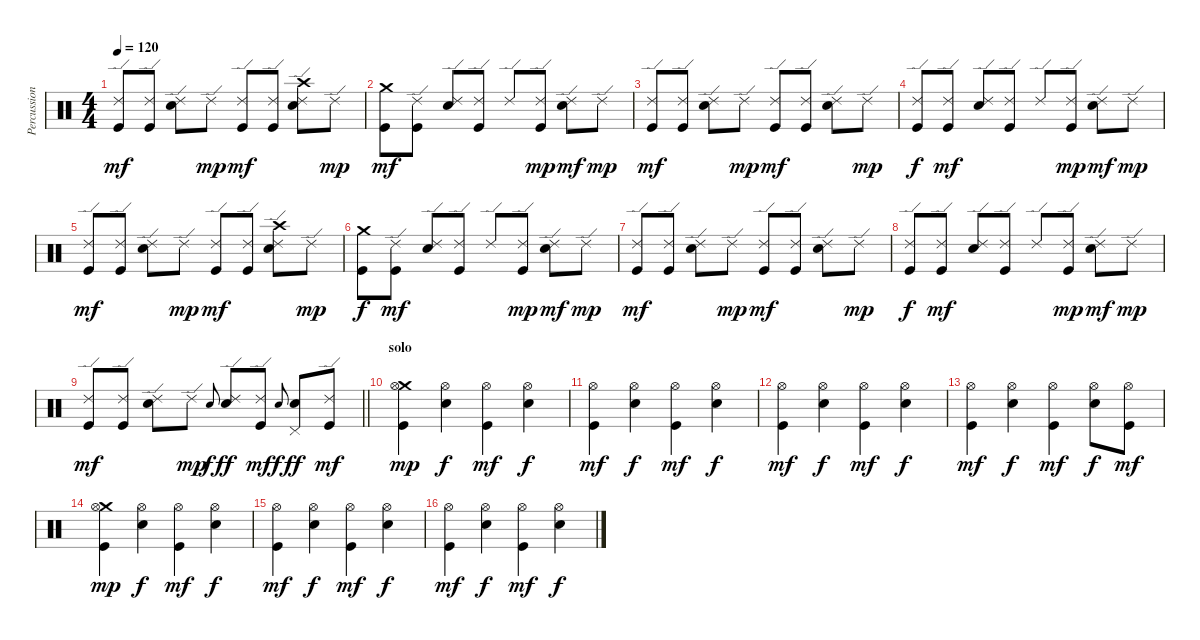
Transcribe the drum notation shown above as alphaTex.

\track ("Percussion" "Percussion") {instrument percussion}
\staff {score}
\articulation defaults
\ts (4 4)
\tempo 120
\clef neutral
\ks c
("Ride (edge) 2" "Kick (hit)").8{dy mf} ("Ride (edge) 2" "Kick (hit)").8 ("Ride (edge) 2" "Electric Snare (hit)").8 "Ride (edge) 2".8{dy mp} ("Ride (edge) 2" "Kick (hit)").8{dy mf} ("Ride (edge) 2" "Kick (hit)").8 ("Ride (edge) 2" "Crash high (hit)" "Electric Snare (hit)").8 "Ride (edge) 2".8{dy mp} |
("Crash medium (hit)" "Kick (hit)").8{dy mf} ("Ride (edge) 2" "Kick (hit)").8 ("Ride (edge) 2" "Electric Snare (hit)").8 ("Ride (edge) 2" "Kick (hit)").8 "Ride (edge) 2".8 ("Ride (edge) 2" "Kick (hit)").8{dy mp} ("Ride (edge) 2" "Electric Snare (hit)").8{dy mf} "Ride (edge) 2".8{dy mp} |
("Ride (edge) 2" "Kick (hit)").8{dy mf} ("Ride (edge) 2" "Kick (hit)").8 ("Ride (edge) 2" "Electric Snare (hit)").8 "Ride (edge) 2".8{dy mp} ("Ride (edge) 2" "Kick (hit)").8{dy mf} ("Ride (edge) 2" "Kick (hit)").8 ("Ride (edge) 2" "Electric Snare (hit)").8 "Ride (edge) 2".8{dy mp} |
("Ride (edge) 2" "Kick (hit)").8{dy f} ("Ride (edge) 2" "Kick (hit)").8{dy mf} ("Ride (edge) 2" "Electric Snare (hit)").8 ("Ride (edge) 2" "Kick (hit)").8 "Ride (edge) 2".8 ("Ride (edge) 2" "Kick (hit)").8{dy mp} ("Ride (edge) 2" "Electric Snare (hit)").8{dy mf} "Ride (edge) 2".8{dy mp} |
("Ride (edge) 2" "Kick (hit)").8{dy mf} ("Ride (edge) 2" "Kick (hit)").8 ("Ride (edge) 2" "Electric Snare (hit)").8 "Ride (edge) 2".8{dy mp} ("Ride (edge) 2" "Kick (hit)").8{dy mf} ("Ride (edge) 2" "Kick (hit)").8 ("Ride (edge) 2" "Crash high (hit)" "Electric Snare (hit)").8 "Ride (edge) 2".8{dy mp} |
("Crash medium (hit)" "Kick (hit)").8{dy f} ("Ride (edge) 2" "Kick (hit)").8{dy mf} ("Ride (edge) 2" "Electric Snare (hit)").8 ("Ride (edge) 2" "Kick (hit)").8 "Ride (edge) 2".8 ("Ride (edge) 2" "Kick (hit)").8{dy mp} ("Ride (edge) 2" "Electric Snare (hit)").8{dy mf} "Ride (edge) 2".8{dy mp} |
("Ride (edge) 2" "Kick (hit)").8{dy mf} ("Ride (edge) 2" "Kick (hit)").8 ("Ride (edge) 2" "Electric Snare (hit)").8 "Ride (edge) 2".8{dy mp} ("Ride (edge) 2" "Kick (hit)").8{dy mf} ("Ride (edge) 2" "Kick (hit)").8 ("Ride (edge) 2" "Electric Snare (hit)").8 "Ride (edge) 2".8{dy mp} |
("Ride (edge) 2" "Kick (hit)").8{dy f} ("Ride (edge) 2" "Kick (hit)").8{dy mf} ("Ride (edge) 2" "Electric Snare (hit)").8 ("Ride (edge) 2" "Kick (hit)").8 "Ride (edge) 2".8 ("Ride (edge) 2" "Kick (hit)").8{dy mp} ("Ride (edge) 2" "Electric Snare (hit)").8{dy mf} "Ride (edge) 2".8{dy mp} |
\barLineRight lightlight
("Ride (edge) 2" "Kick (hit)").8{dy mf} ("Ride (edge) 2" "Kick (hit)").8 ("Ride (edge) 2" "Electric Snare (hit)").8 "Ride (edge) 2".8{dy mp} "Electric Snare (hit)".8{gr onbeat dy f} ("Ride (edge) 2" "Electric Snare (hit)").8{dy ff} ("Ride (edge) 2" "Kick (hit)").8{dy mf} "Electric Snare (hit)".8{gr onbeat dy f} ("Pedal Hi-Hat (hit)" "Electric Snare (hit)").8{dy ff} ("Ride (edge) 2" "Kick (hit)").8{dy mf} |
\section ("" "solo")
("Crash medium (hit)" "Hi-Hat (open)" "Kick (hit)").4{dy mp} ("Hi-Hat (open)" "Electric Snare (hit)").4{dy f} ("Hi-Hat (open)" "Kick (hit)").4{dy mf} ("Hi-Hat (open)" "Electric Snare (hit)").4{dy f} |
("Hi-Hat (open)" "Kick (hit)").4{dy mf} ("Hi-Hat (open)" "Electric Snare (hit)").4{dy f} ("Hi-Hat (open)" "Kick (hit)").4{dy mf} ("Hi-Hat (open)" "Electric Snare (hit)").4{dy f} |
("Hi-Hat (open)" "Kick (hit)").4{dy mf} ("Hi-Hat (open)" "Electric Snare (hit)").4{dy f} ("Hi-Hat (open)" "Kick (hit)").4{dy mf} ("Hi-Hat (open)" "Electric Snare (hit)").4{dy f} |
("Hi-Hat (open)" "Kick (hit)").4{dy mf} ("Hi-Hat (open)" "Electric Snare (hit)").4{dy f} ("Hi-Hat (open)" "Kick (hit)").4{dy mf} ("Hi-Hat (open)" "Electric Snare (hit)").8{dy f} ("Hi-Hat (open)" "Kick (hit)").8{dy mf} |
("Crash medium (hit)" "Hi-Hat (open)" "Kick (hit)").4{dy mp} ("Hi-Hat (open)" "Electric Snare (hit)").4{dy f} ("Hi-Hat (open)" "Kick (hit)").4{dy mf} ("Hi-Hat (open)" "Electric Snare (hit)").4{dy f} |
("Hi-Hat (open)" "Kick (hit)").4{dy mf} ("Hi-Hat (open)" "Electric Snare (hit)").4{dy f} ("Hi-Hat (open)" "Kick (hit)").4{dy mf} ("Hi-Hat (open)" "Electric Snare (hit)").4{dy f} |
("Hi-Hat (open)" "Kick (hit)").4{dy mf} ("Hi-Hat (open)" "Electric Snare (hit)").4{dy f} ("Hi-Hat (open)" "Kick (hit)").4{dy mf} ("Hi-Hat (open)" "Electric Snare (hit)").4{dy f}
